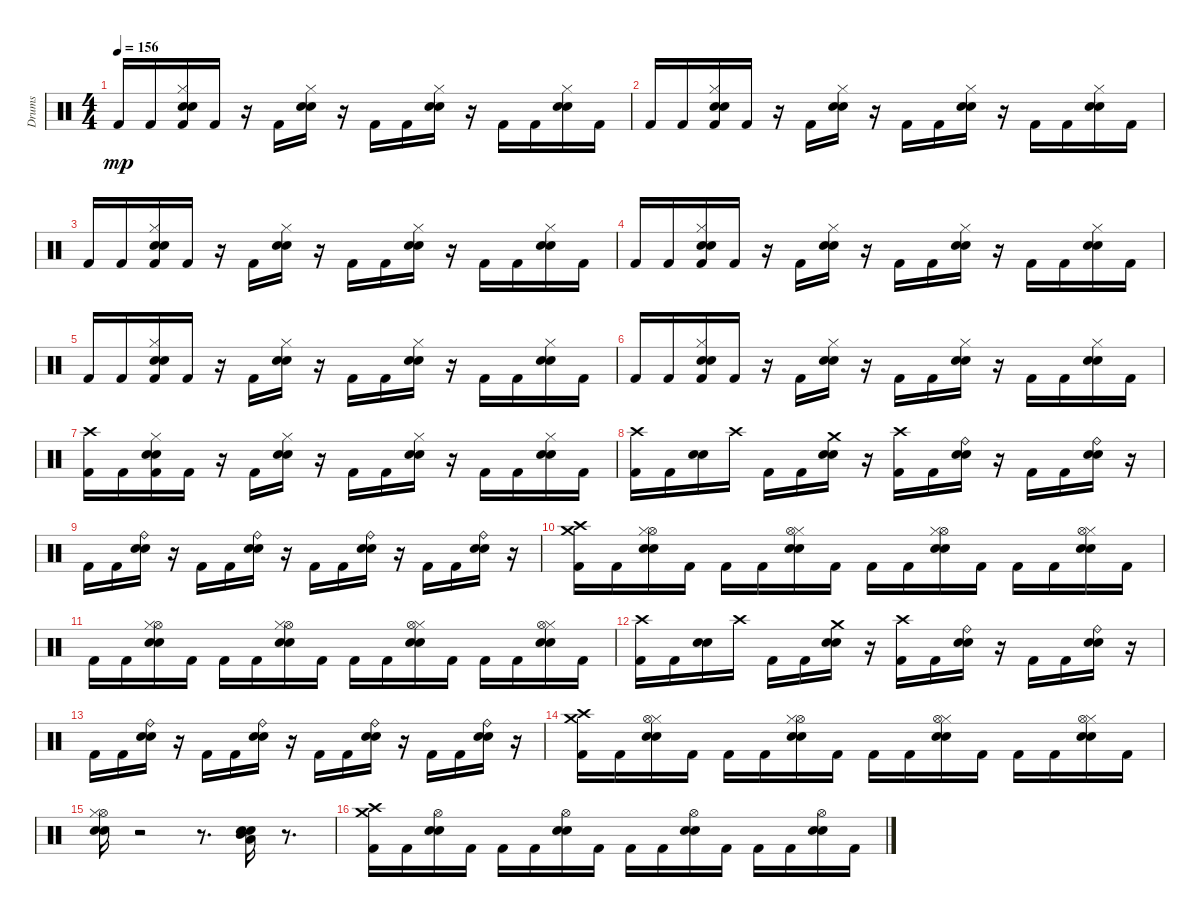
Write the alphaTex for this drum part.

\track ("Drums" "Drums") {instrument percussion}
\staff {score}
\articulation defaults
\ts (4 4)
\tempo 156
\clef neutral
\ks c "Kick (hit) 2".16{dy mp} "Kick (hit) 2".16
("Kick (hit) 2" "Hi-Hat (closed)" "Electric Snare (hit)" "Snare (hit) 2").16 "Kick (hit) 2".16 r.16 "Kick (hit) 2".16 ("Electric Snare (hit)" "Snare (hit) 2" "Hi-Hat (closed)").16 r.16 "Kick (hit) 2".16 "Kick (hit) 2".16 ("Snare (hit) 2" "Electric Snare (hit)" "Hi-Hat (closed)").16 r.16 "Kick (hit) 2".16 "Kick (hit) 2".16 ("Electric Snare (hit)" "Hi-Hat (closed)" "Snare (hit) 2").16 "Kick (hit) 2".16 |
"Kick (hit) 2".16 "Kick (hit) 2".16 ("Kick (hit) 2" "Snare (hit) 2" "Hi-Hat (closed)" "Electric Snare (hit)").16 "Kick (hit) 2".16 r.16 "Kick (hit) 2".16 ("Electric Snare (hit)" "Hi-Hat (closed)" "Snare (hit) 2").16 r.16 "Kick (hit) 2".16 "Kick (hit) 2".16 ("Snare (hit) 2" "Electric Snare (hit)" "Hi-Hat (closed)").16 r.16 "Kick (hit) 2".16 "Kick (hit) 2".16 ("Snare (hit) 2" "Hi-Hat (closed)" "Electric Snare (hit)").16 "Kick (hit) 2".16 |
"Kick (hit) 2".16 "Kick (hit) 2".16 ("Kick (hit) 2" "Hi-Hat (closed)" "Electric Snare (hit)" "Snare (hit) 2").16 "Kick (hit) 2".16 r.16 "Kick (hit) 2".16 ("Snare (hit) 2" "Electric Snare (hit)" "Hi-Hat (closed)").16 r.16 "Kick (hit) 2".16 "Kick (hit) 2".16 ("Snare (hit) 2" "Hi-Hat (closed)" "Electric Snare (hit)").16 r.16 "Kick (hit) 2".16 "Kick (hit) 2".16 ("Electric Snare (hit)" "Snare (hit) 2" "Hi-Hat (closed)").16 "Kick (hit) 2".16 |
"Kick (hit) 2".16 "Kick (hit) 2".16 ("Snare (hit) 2" "Electric Snare (hit)" "Kick (hit) 2" "Hi-Hat (closed)").16 "Kick (hit) 2".16 r.16 "Kick (hit) 2".16 ("Electric Snare (hit)" "Snare (hit) 2" "Hi-Hat (closed)").16 r.16 "Kick (hit) 2".16 "Kick (hit) 2".16 ("Snare (hit) 2" "Hi-Hat (closed)" "Electric Snare (hit)").16 r.16 "Kick (hit) 2".16 "Kick (hit) 2".16 ("Electric Snare (hit)" "Hi-Hat (closed)" "Snare (hit) 2").16 "Kick (hit) 2".16 |
"Kick (hit) 2".16 "Kick (hit) 2".16 ("Hi-Hat (closed)" "Electric Snare (hit)" "Kick (hit) 2" "Snare (hit) 2").16 "Kick (hit) 2".16 r.16 "Kick (hit) 2".16 ("Electric Snare (hit)" "Snare (hit) 2" "Hi-Hat (closed)").16 r.16 "Kick (hit) 2".16 "Kick (hit) 2".16 ("Hi-Hat (closed)" "Snare (hit) 2" "Electric Snare (hit)").16 r.16 "Kick (hit) 2".16 "Kick (hit) 2".16 ("Electric Snare (hit)" "Hi-Hat (closed)" "Snare (hit) 2").16 "Kick (hit) 2".16 |
"Kick (hit) 2".16 "Kick (hit) 2".16 ("Electric Snare (hit)" "Snare (hit) 2" "Hi-Hat (closed)" "Kick (hit) 2").16 "Kick (hit) 2".16 r.16 "Kick (hit) 2".16 ("Electric Snare (hit)" "Hi-Hat (closed)" "Snare (hit) 2").16 r.16 "Kick (hit) 2".16 "Kick (hit) 2".16 ("Hi-Hat (closed)" "Electric Snare (hit)" "Snare (hit) 2").16 r.16 "Kick (hit) 2".16 "Kick (hit) 2".16 ("Hi-Hat (closed)" "Snare (hit) 2" "Electric Snare (hit)").16 "Kick (hit) 2".16 |
("Crash high (hit)" "Kick (hit) 2").16 "Kick (hit) 2".16 ("Electric Snare (hit)" "Snare (hit) 2" "Hi-Hat (closed)" "Kick (hit) 2").16 "Kick (hit) 2".16 r.16 "Kick (hit) 2".16 ("Snare (hit) 2" "Electric Snare (hit)" "Hi-Hat (closed)").16 r.16 "Kick (hit) 2".16 "Kick (hit) 2".16 ("Electric Snare (hit)" "Hi-Hat (closed)" "Snare (hit) 2").16 r.16 "Kick (hit) 2".16 "Kick (hit) 2".16 ("Snare (hit) 2" "Electric Snare (hit)" "Hi-Hat (closed)").16 "Kick (hit) 2".16 |
("Crash high (hit)" "Kick (hit) 2").16 "Kick (hit) 2".16 ("Electric Snare (hit)" "Snare (hit) 2").16 "Crash high (hit)".16 "Kick (hit) 2".16 "Kick (hit) 2".16 ("Snare (hit) 2" "Crash medium (hit)" "Electric Snare (hit)").16 r.16 ("Kick (hit) 2" "Crash high (hit)").16 "Kick (hit) 2".16 ("Ride (bell)" "Snare (hit) 2" "Electric Snare (hit)").16 r.16 "Kick (hit) 2".16 "Kick (hit) 2".16 ("Snare (hit) 2" "Ride (bell)" "Electric Snare (hit)").16 r.16 |
"Kick (hit) 2".16 "Kick (hit) 2".16 ("Snare (hit) 2" "Ride (bell)" "Electric Snare (hit)").16 r.16 "Kick (hit) 2".16 "Kick (hit) 2".16 ("Electric Snare (hit)" "Snare (hit) 2" "Ride (bell)").16 r.16 "Kick (hit) 2".16 "Kick (hit) 2".16 ("Electric Snare (hit)" "Ride (bell)" "Snare (hit) 2").16 r.16 "Kick (hit) 2".16 "Kick (hit) 2".16 ("Ride (bell)" "Snare (hit) 2" "Electric Snare (hit)").16 r.16 |
("Crash high (hit)" "Crash medium (hit)" "Kick (hit) 2").16 "Kick (hit) 2".16 ("Hi-Hat (open)" "Electric Snare (hit)" "Snare (hit) 2" "Hi-Hat (closed)").16 "Kick (hit) 2".16 "Kick (hit) 2".16 "Kick (hit) 2".16 ("Hi-Hat (closed)" "Hi-Hat (open)" "Electric Snare (hit)" "Snare (hit) 2").16 "Kick (hit) 2".16 "Kick (hit) 2".16 "Kick (hit) 2".16 ("Snare (hit) 2" "Hi-Hat (open)" "Hi-Hat (closed)" "Electric Snare (hit)").16 "Kick (hit) 2".16 "Kick (hit) 2".16 "Kick (hit) 2".16 ("Hi-Hat (closed)" "Snare (hit) 2" "Electric Snare (hit)" "Hi-Hat (open)").16 "Kick (hit) 2".16 |
"Kick (hit) 2".16 "Kick (hit) 2".16 ("Snare (hit) 2" "Hi-Hat (open)" "Hi-Hat (closed)" "Electric Snare (hit)").16 "Kick (hit) 2".16 "Kick (hit) 2".16 "Kick (hit) 2".16 ("Snare (hit) 2" "Hi-Hat (open)" "Electric Snare (hit)" "Hi-Hat (closed)").16 "Kick (hit) 2".16 "Kick (hit) 2".16 "Kick (hit) 2".16 ("Hi-Hat (closed)" "Hi-Hat (open)" "Electric Snare (hit)" "Snare (hit) 2").16 "Kick (hit) 2".16 "Kick (hit) 2".16 "Kick (hit) 2".16 ("Electric Snare (hit)" "Hi-Hat (closed)" "Hi-Hat (open)" "Snare (hit) 2").16 "Kick (hit) 2".16 |
("Kick (hit) 2" "Crash high (hit)").16 "Kick (hit) 2".16 ("Snare (hit) 2" "Electric Snare (hit)").16 "Crash high (hit)".16 "Kick (hit) 2".16 "Kick (hit) 2".16 ("Snare (hit) 2" "Electric Snare (hit)" "Crash medium (hit)").16 r.16 ("Crash high (hit)" "Kick (hit) 2").16 "Kick (hit) 2".16 ("Electric Snare (hit)" "Snare (hit) 2" "Ride (bell)").16 r.16 "Kick (hit) 2".16 "Kick (hit) 2".16 ("Electric Snare (hit)" "Snare (hit) 2" "Ride (bell)").16 r.16 |
"Kick (hit) 2".16 "Kick (hit) 2".16 ("Electric Snare (hit)" "Ride (bell)" "Snare (hit) 2").16 r.16 "Kick (hit) 2".16 "Kick (hit) 2".16 ("Electric Snare (hit)" "Ride (bell)" "Snare (hit) 2").16 r.16 "Kick (hit) 2".16 "Kick (hit) 2".16 ("Snare (hit) 2" "Electric Snare (hit)" "Ride (bell)").16 r.16 "Kick (hit) 2".16 "Kick (hit) 2".16 ("Electric Snare (hit)" "Snare (hit) 2" "Ride (bell)").16 r.16 |
("Crash high (hit)" "Kick (hit) 2" "Crash medium (hit)").16 "Kick (hit) 2".16 ("Hi-Hat (closed)" "Hi-Hat (open)" "Snare (hit) 2" "Electric Snare (hit)").16 "Kick (hit) 2".16 "Kick (hit) 2".16 "Kick (hit) 2".16 ("Hi-Hat (open)" "Snare (hit) 2" "Hi-Hat (closed)" "Electric Snare (hit)").16 "Kick (hit) 2".16 "Kick (hit) 2".16 "Kick (hit) 2".16 ("Electric Snare (hit)" "Snare (hit) 2" "Hi-Hat (closed)" "Hi-Hat (open)").16 "Kick (hit) 2".16 "Kick (hit) 2".16 "Kick (hit) 2".16 ("Hi-Hat (closed)" "Hi-Hat (open)" "Electric Snare (hit)" "Snare (hit) 2").16 "Kick (hit) 2".16 |
("Hi-Hat (open)" "Hi-Hat (closed)" "Snare (hit) 2" "Electric Snare (hit)").16 r.2 r.8{d} ("Low Tom (hit)" "Electric Snare (hit)" "Mid Tom (hit)" "Snare (hit) 2").16 r.8{d} |
("Crash medium (hit)" "Crash high (hit)" "Kick (hit) 2").16 "Kick (hit) 2".16 ("Snare (hit) 2" "Hi-Hat (open)" "Electric Snare (hit)").16 "Kick (hit) 2".16 "Kick (hit) 2".16 "Kick (hit) 2".16 ("Electric Snare (hit)" "Snare (hit) 2" "Hi-Hat (open)").16 "Kick (hit) 2".16 "Kick (hit) 2".16 "Kick (hit) 2".16 ("Snare (hit) 2" "Hi-Hat (open)" "Electric Snare (hit)").16 "Kick (hit) 2".16 "Kick (hit) 2".16 "Kick (hit) 2".16 ("Hi-Hat (open)" "Snare (hit) 2" "Electric Snare (hit)").16 "Kick (hit) 2".16
